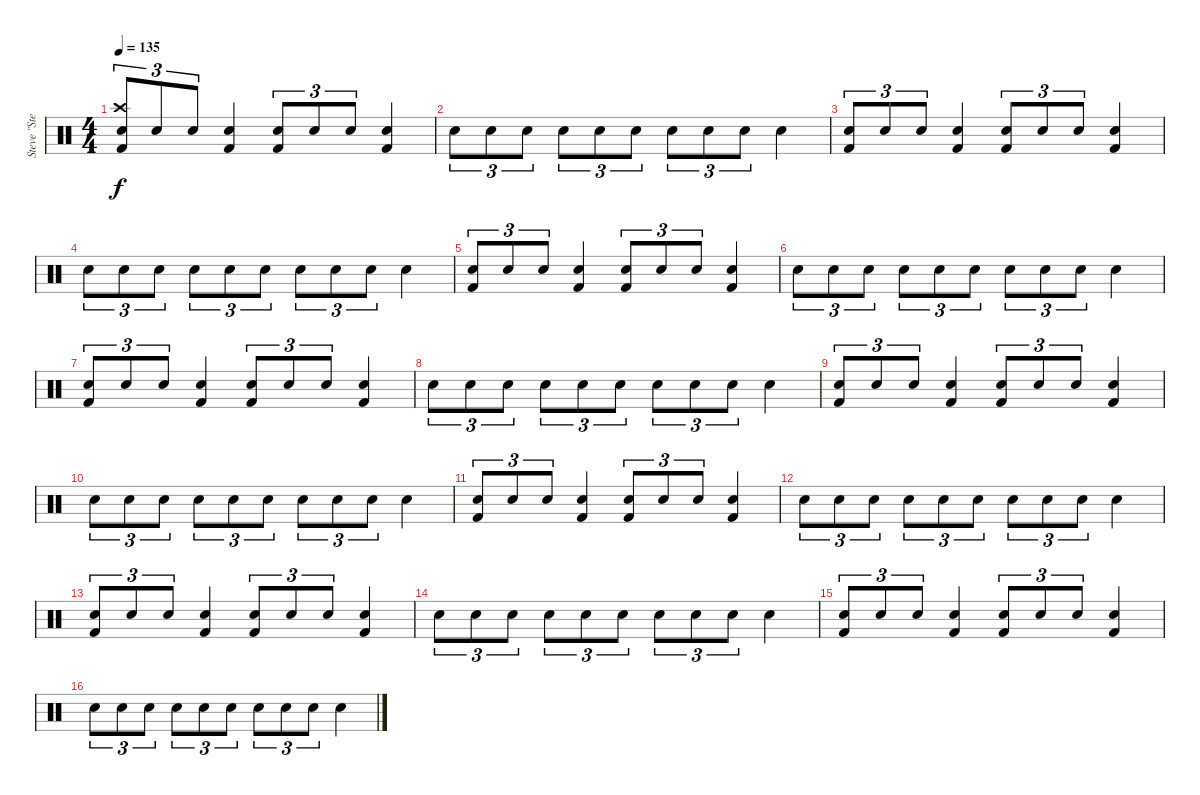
\track ("Steve \"Stevo 32\" Jocz" "Steve \"Ste") {instrument percussion}
\staff {score}
\articulation defaults
\ts (4 4)
\tempo 135
\clef neutral
\ks c
("Snare (hit) 2" "Crash high (hit)" "Kick (hit) 2").8{tu (3 2) dy f} "Snare (hit) 2".8{tu (3 2)} "Snare (hit) 2".8{tu (3 2)} ("Snare (hit) 2" "Kick (hit) 2").4 ("Snare (hit) 2" "Kick (hit) 2").8{tu (3 2)} "Snare (hit) 2".8{tu (3 2)} "Snare (hit) 2".8{tu (3 2)} ("Snare (hit) 2" "Kick (hit) 2").4 |
"Snare (hit) 2".8{tu (3 2)} "Snare (hit) 2".8{tu (3 2)} "Snare (hit) 2".8{tu (3 2)} "Snare (hit) 2".8{tu (3 2)} "Snare (hit) 2".8{tu (3 2)} "Snare (hit) 2".8{tu (3 2)} "Snare (hit) 2".8{tu (3 2)} "Snare (hit) 2".8{tu (3 2)} "Snare (hit) 2".8{tu (3 2)} "Snare (hit) 2".4 |
("Snare (hit) 2" "Kick (hit) 2").8{tu (3 2)} "Snare (hit) 2".8{tu (3 2)} "Snare (hit) 2".8{tu (3 2)} ("Snare (hit) 2" "Kick (hit) 2").4 ("Snare (hit) 2" "Kick (hit) 2").8{tu (3 2)} "Snare (hit) 2".8{tu (3 2)} "Snare (hit) 2".8{tu (3 2)} ("Snare (hit) 2" "Kick (hit) 2").4 |
"Snare (hit) 2".8{tu (3 2)} "Snare (hit) 2".8{tu (3 2)} "Snare (hit) 2".8{tu (3 2)} "Snare (hit) 2".8{tu (3 2)} "Snare (hit) 2".8{tu (3 2)} "Snare (hit) 2".8{tu (3 2)} "Snare (hit) 2".8{tu (3 2)} "Snare (hit) 2".8{tu (3 2)} "Snare (hit) 2".8{tu (3 2)} "Snare (hit) 2".4 |
("Snare (hit) 2" "Kick (hit) 2").8{tu (3 2)} "Snare (hit) 2".8{tu (3 2)} "Snare (hit) 2".8{tu (3 2)} ("Snare (hit) 2" "Kick (hit) 2").4 ("Snare (hit) 2" "Kick (hit) 2").8{tu (3 2)} "Snare (hit) 2".8{tu (3 2)} "Snare (hit) 2".8{tu (3 2)} ("Snare (hit) 2" "Kick (hit) 2").4 |
"Snare (hit) 2".8{tu (3 2)} "Snare (hit) 2".8{tu (3 2)} "Snare (hit) 2".8{tu (3 2)} "Snare (hit) 2".8{tu (3 2)} "Snare (hit) 2".8{tu (3 2)} "Snare (hit) 2".8{tu (3 2)} "Snare (hit) 2".8{tu (3 2)} "Snare (hit) 2".8{tu (3 2)} "Snare (hit) 2".8{tu (3 2)} "Snare (hit) 2".4 |
("Snare (hit) 2" "Kick (hit) 2").8{tu (3 2)} "Snare (hit) 2".8{tu (3 2)} "Snare (hit) 2".8{tu (3 2)} ("Snare (hit) 2" "Kick (hit) 2").4 ("Snare (hit) 2" "Kick (hit) 2").8{tu (3 2)} "Snare (hit) 2".8{tu (3 2)} "Snare (hit) 2".8{tu (3 2)} ("Snare (hit) 2" "Kick (hit) 2").4 |
"Snare (hit) 2".8{tu (3 2)} "Snare (hit) 2".8{tu (3 2)} "Snare (hit) 2".8{tu (3 2)} "Snare (hit) 2".8{tu (3 2)} "Snare (hit) 2".8{tu (3 2)} "Snare (hit) 2".8{tu (3 2)} "Snare (hit) 2".8{tu (3 2)} "Snare (hit) 2".8{tu (3 2)} "Snare (hit) 2".8{tu (3 2)} "Snare (hit) 2".4 |
("Snare (hit) 2" "Kick (hit) 2").8{tu (3 2)} "Snare (hit) 2".8{tu (3 2)} "Snare (hit) 2".8{tu (3 2)} ("Snare (hit) 2" "Kick (hit) 2").4 ("Snare (hit) 2" "Kick (hit) 2").8{tu (3 2)} "Snare (hit) 2".8{tu (3 2)} "Snare (hit) 2".8{tu (3 2)} ("Snare (hit) 2" "Kick (hit) 2").4 |
"Snare (hit) 2".8{tu (3 2)} "Snare (hit) 2".8{tu (3 2)} "Snare (hit) 2".8{tu (3 2)} "Snare (hit) 2".8{tu (3 2)} "Snare (hit) 2".8{tu (3 2)} "Snare (hit) 2".8{tu (3 2)} "Snare (hit) 2".8{tu (3 2)} "Snare (hit) 2".8{tu (3 2)} "Snare (hit) 2".8{tu (3 2)} "Snare (hit) 2".4 |
("Snare (hit) 2" "Kick (hit) 2").8{tu (3 2)} "Snare (hit) 2".8{tu (3 2)} "Snare (hit) 2".8{tu (3 2)} ("Snare (hit) 2" "Kick (hit) 2").4 ("Snare (hit) 2" "Kick (hit) 2").8{tu (3 2)} "Snare (hit) 2".8{tu (3 2)} "Snare (hit) 2".8{tu (3 2)} ("Snare (hit) 2" "Kick (hit) 2").4 |
"Snare (hit) 2".8{tu (3 2)} "Snare (hit) 2".8{tu (3 2)} "Snare (hit) 2".8{tu (3 2)} "Snare (hit) 2".8{tu (3 2)} "Snare (hit) 2".8{tu (3 2)} "Snare (hit) 2".8{tu (3 2)} "Snare (hit) 2".8{tu (3 2)} "Snare (hit) 2".8{tu (3 2)} "Snare (hit) 2".8{tu (3 2)} "Snare (hit) 2".4 |
("Snare (hit) 2" "Kick (hit) 2").8{tu (3 2)} "Snare (hit) 2".8{tu (3 2)} "Snare (hit) 2".8{tu (3 2)} ("Snare (hit) 2" "Kick (hit) 2").4 ("Snare (hit) 2" "Kick (hit) 2").8{tu (3 2)} "Snare (hit) 2".8{tu (3 2)} "Snare (hit) 2".8{tu (3 2)} ("Snare (hit) 2" "Kick (hit) 2").4 |
"Snare (hit) 2".8{tu (3 2)} "Snare (hit) 2".8{tu (3 2)} "Snare (hit) 2".8{tu (3 2)} "Snare (hit) 2".8{tu (3 2)} "Snare (hit) 2".8{tu (3 2)} "Snare (hit) 2".8{tu (3 2)} "Snare (hit) 2".8{tu (3 2)} "Snare (hit) 2".8{tu (3 2)} "Snare (hit) 2".8{tu (3 2)} "Snare (hit) 2".4 |
("Snare (hit) 2" "Kick (hit) 2").8{tu (3 2)} "Snare (hit) 2".8{tu (3 2)} "Snare (hit) 2".8{tu (3 2)} ("Snare (hit) 2" "Kick (hit) 2").4 ("Snare (hit) 2" "Kick (hit) 2").8{tu (3 2)} "Snare (hit) 2".8{tu (3 2)} "Snare (hit) 2".8{tu (3 2)} ("Snare (hit) 2" "Kick (hit) 2").4 |
"Snare (hit) 2".8{tu (3 2)} "Snare (hit) 2".8{tu (3 2)} "Snare (hit) 2".8{tu (3 2)} "Snare (hit) 2".8{tu (3 2)} "Snare (hit) 2".8{tu (3 2)} "Snare (hit) 2".8{tu (3 2)} "Snare (hit) 2".8{tu (3 2)} "Snare (hit) 2".8{tu (3 2)} "Snare (hit) 2".8{tu (3 2)} "Snare (hit) 2".4
